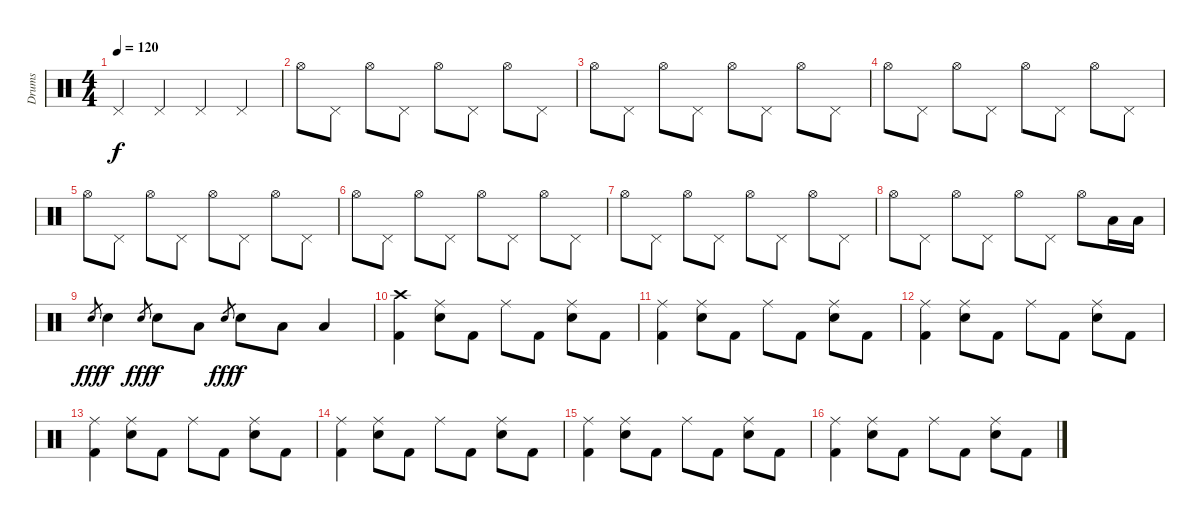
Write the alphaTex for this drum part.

\track ("Drums" "Drums") {instrument percussion}
\staff {score}
\articulation defaults
\ts (4 4)
\tempo 120
\tempo 110
\tempo 120
\clef neutral
\ks c "Pedal Hi-Hat (hit)".4{dy f} "Pedal Hi-Hat (hit)".4 "Pedal Hi-Hat (hit)".4 "Pedal Hi-Hat (hit)".4
|
"Hi-Hat (open)".8 "Pedal Hi-Hat (hit)".8 "Hi-Hat (open)".8 "Pedal Hi-Hat (hit)".8 "Hi-Hat (open)".8 "Pedal Hi-Hat (hit)".8 "Hi-Hat (open)".8 "Pedal Hi-Hat (hit)".8 |
"Hi-Hat (open)".8 "Pedal Hi-Hat (hit)".8 "Hi-Hat (open)".8 "Pedal Hi-Hat (hit)".8 "Hi-Hat (open)".8 "Pedal Hi-Hat (hit)".8 "Hi-Hat (open)".8 "Pedal Hi-Hat (hit)".8 |
"Hi-Hat (open)".8 "Pedal Hi-Hat (hit)".8 "Hi-Hat (open)".8 "Pedal Hi-Hat (hit)".8 "Hi-Hat (open)".8 "Pedal Hi-Hat (hit)".8 "Hi-Hat (open)".8 "Pedal Hi-Hat (hit)".8 |
"Hi-Hat (open)".8 "Pedal Hi-Hat (hit)".8 "Hi-Hat (open)".8 "Pedal Hi-Hat (hit)".8 "Hi-Hat (open)".8 "Pedal Hi-Hat (hit)".8 "Hi-Hat (open)".8 "Pedal Hi-Hat (hit)".8 |
"Hi-Hat (open)".8 "Pedal Hi-Hat (hit)".8 "Hi-Hat (open)".8 "Pedal Hi-Hat (hit)".8 "Hi-Hat (open)".8 "Pedal Hi-Hat (hit)".8 "Hi-Hat (open)".8 "Pedal Hi-Hat (hit)".8 |
"Hi-Hat (open)".8 "Pedal Hi-Hat (hit)".8 "Hi-Hat (open)".8 "Pedal Hi-Hat (hit)".8 "Hi-Hat (open)".8 "Pedal Hi-Hat (hit)".8 "Hi-Hat (open)".8 "Pedal Hi-Hat (hit)".8 |
"Hi-Hat (open)".8 "Pedal Hi-Hat (hit)".8 "Hi-Hat (open)".8 "Pedal Hi-Hat (hit)".8 "Hi-Hat (open)".8 "Pedal Hi-Hat (hit)".8 "Hi-Hat (open)".8 "Low Tom (hit)".16 "Low Floor Tom (hit)".16 |
"Electric Snare (hit)".8{gr dy fff} "Electric Snare (hit)".4{dy f} "Electric Snare (hit)".8{gr dy fff} "Electric Snare (hit)".8{dy f} "Low Tom (hit)".8 "Electric Snare (hit)".8{gr dy fff} "Electric Snare (hit)".8{dy f} "Low Tom (hit)".8 "Low Floor Tom (hit)".4 |
("Crash high (hit)" "Kick (hit) 2").4 ("Ride (middle)" "Electric Snare (hit)").8 "Kick (hit) 2".8 "Ride (middle)".8 "Kick (hit) 2".8 ("Ride (middle)" "Electric Snare (hit)").8 "Kick (hit) 2".8 |
("Ride (middle)" "Kick (hit) 2").4 ("Ride (middle)" "Electric Snare (hit)").8 "Kick (hit) 2".8 "Ride (middle)".8 "Kick (hit) 2".8 ("Ride (middle)" "Electric Snare (hit)").8 "Kick (hit) 2".8 |
("Ride (middle)" "Kick (hit) 2").4 ("Ride (middle)" "Electric Snare (hit)").8 "Kick (hit) 2".8 "Ride (middle)".8 "Kick (hit) 2".8 ("Ride (middle)" "Electric Snare (hit)").8 "Kick (hit) 2".8 |
("Ride (middle)" "Kick (hit) 2").4 ("Ride (middle)" "Electric Snare (hit)").8 "Kick (hit) 2".8 "Ride (middle)".8 "Kick (hit) 2".8 ("Ride (middle)" "Electric Snare (hit)").8 "Kick (hit) 2".8 |
("Ride (middle)" "Kick (hit) 2").4 ("Ride (middle)" "Electric Snare (hit)").8 "Kick (hit) 2".8 "Ride (middle)".8 "Kick (hit) 2".8 ("Ride (middle)" "Electric Snare (hit)").8 "Kick (hit) 2".8 |
("Ride (middle)" "Kick (hit) 2").4 ("Ride (middle)" "Electric Snare (hit)").8 "Kick (hit) 2".8 "Ride (middle)".8 "Kick (hit) 2".8 ("Ride (middle)" "Electric Snare (hit)").8 "Kick (hit) 2".8 |
("Ride (middle)" "Kick (hit) 2").4 ("Ride (middle)" "Electric Snare (hit)").8 "Kick (hit) 2".8 "Ride (middle)".8 "Kick (hit) 2".8 ("Ride (middle)" "Electric Snare (hit)").8 "Kick (hit) 2".8
